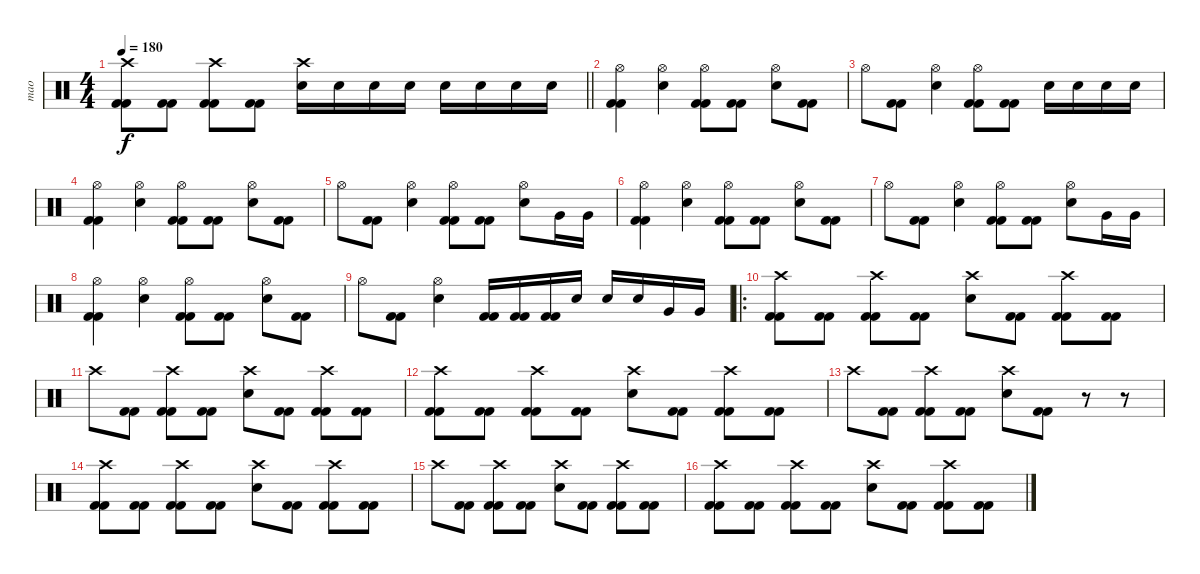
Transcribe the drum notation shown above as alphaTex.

\track ("mao" "mao") {instrument percussion}
\staff {score}
\articulation defaults
\ts (4 4)
\tempo 180
\clef neutral
\barLineRight lightlight
\ks c
("Crash high (hit)" "Kick (hit) 2" "Kick (hit) 2").8{dy f} ("Kick (hit) 2" "Kick (hit) 2").8 ("Crash high (hit)" "Kick (hit) 2" "Kick (hit) 2").8 ("Kick (hit) 2" "Kick (hit) 2").8 ("Crash high (hit)" "Electric Snare (hit)").16 "Electric Snare (hit)".16 "Electric Snare (hit)".16 "Electric Snare (hit)".16 "Electric Snare (hit)".16 "Electric Snare (hit)".16 "Electric Snare (hit)".16 "Electric Snare (hit)".16 |
("Hi-Hat (open)" "Kick (hit) 2" "Kick (hit) 2").4 ("Hi-Hat (open)" "Electric Snare (hit)").4 ("Hi-Hat (open)" "Kick (hit) 2" "Kick (hit) 2").8 ("Kick (hit) 2" "Kick (hit) 2").8 ("Hi-Hat (open)" "Electric Snare (hit)").8 ("Kick (hit) 2" "Kick (hit) 2").8 |
"Hi-Hat (open)".8 ("Kick (hit) 2" "Kick (hit) 2").8 ("Hi-Hat (open)" "Electric Snare (hit)").4 ("Hi-Hat (open)" "Kick (hit) 2" "Kick (hit) 2").8 ("Kick (hit) 2" "Kick (hit) 2").8 "Electric Snare (hit)".16 "Electric Snare (hit)".16 "Electric Snare (hit)".16 "Electric Snare (hit)".16 |
("Hi-Hat (open)" "Kick (hit) 2" "Kick (hit) 2").4 ("Hi-Hat (open)" "Electric Snare (hit)").4 ("Hi-Hat (open)" "Kick (hit) 2" "Kick (hit) 2").8 ("Kick (hit) 2" "Kick (hit) 2").8 ("Hi-Hat (open)" "Electric Snare (hit)").8 ("Kick (hit) 2" "Kick (hit) 2").8 |
"Hi-Hat (open)".8 ("Kick (hit) 2" "Kick (hit) 2").8 ("Hi-Hat (open)" "Electric Snare (hit)").4 ("Hi-Hat (open)" "Kick (hit) 2" "Kick (hit) 2").8 ("Kick (hit) 2" "Kick (hit) 2").8 ("Hi-Hat (open)" "Electric Snare (hit)").8 "Very Low Tom (hit)".16 "Very Low Tom (hit)".16 |
("Hi-Hat (open)" "Kick (hit) 2" "Kick (hit) 2").4 ("Hi-Hat (open)" "Electric Snare (hit)").4 ("Hi-Hat (open)" "Kick (hit) 2" "Kick (hit) 2").8 ("Kick (hit) 2" "Kick (hit) 2").8 ("Hi-Hat (open)" "Electric Snare (hit)").8 ("Kick (hit) 2" "Kick (hit) 2").8 |
"Hi-Hat (open)".8 ("Kick (hit) 2" "Kick (hit) 2").8 ("Hi-Hat (open)" "Electric Snare (hit)").4 ("Hi-Hat (open)" "Kick (hit) 2" "Kick (hit) 2").8 ("Kick (hit) 2" "Kick (hit) 2").8 ("Hi-Hat (open)" "Electric Snare (hit)").8 "Very Low Tom (hit)".16 "Very Low Tom (hit)".16 |
("Hi-Hat (open)" "Kick (hit) 2" "Kick (hit) 2").4 ("Hi-Hat (open)" "Electric Snare (hit)").4 ("Hi-Hat (open)" "Kick (hit) 2" "Kick (hit) 2").8 ("Kick (hit) 2" "Kick (hit) 2").8 ("Hi-Hat (open)" "Electric Snare (hit)").8 ("Kick (hit) 2" "Kick (hit) 2").8 |
"Hi-Hat (open)".8 ("Kick (hit) 2" "Kick (hit) 2").8 ("Hi-Hat (open)" "Electric Snare (hit)").4 ("Kick (hit) 2" "Kick (hit) 2").16 ("Kick (hit) 2" "Kick (hit) 2").16 ("Kick (hit) 2" "Kick (hit) 2").16 "Electric Snare (hit)".16 "Electric Snare (hit)".16 "Electric Snare (hit)".16 "Very Low Tom (hit)".16 "Very Low Tom (hit)".16 |
\ro
("Crash high (hit)" "Kick (hit) 2" "Kick (hit) 2").8 ("Kick (hit) 2" "Kick (hit) 2").8 ("Crash high (hit)" "Kick (hit) 2" "Kick (hit) 2").8 ("Kick (hit) 2" "Kick (hit) 2").8 ("Crash high (hit)" "Electric Snare (hit)").8 ("Kick (hit) 2" "Kick (hit) 2").8 ("Crash high (hit)" "Kick (hit) 2" "Kick (hit) 2").8 ("Kick (hit) 2" "Kick (hit) 2").8 |
"Crash high (hit)".8 ("Kick (hit) 2" "Kick (hit) 2").8 ("Crash high (hit)" "Kick (hit) 2" "Kick (hit) 2").8 ("Kick (hit) 2" "Kick (hit) 2").8 ("Crash high (hit)" "Electric Snare (hit)").8 ("Kick (hit) 2" "Kick (hit) 2").8 ("Crash high (hit)" "Kick (hit) 2" "Kick (hit) 2").8 ("Kick (hit) 2" "Kick (hit) 2").8 |
("Crash high (hit)" "Kick (hit) 2" "Kick (hit) 2").8 ("Kick (hit) 2" "Kick (hit) 2").8 ("Crash high (hit)" "Kick (hit) 2" "Kick (hit) 2").8 ("Kick (hit) 2" "Kick (hit) 2").8 ("Crash high (hit)" "Electric Snare (hit)").8 ("Kick (hit) 2" "Kick (hit) 2").8 ("Crash high (hit)" "Kick (hit) 2" "Kick (hit) 2").8 ("Kick (hit) 2" "Kick (hit) 2").8 |
"Crash high (hit)".8 ("Kick (hit) 2" "Kick (hit) 2").8 ("Crash high (hit)" "Kick (hit) 2" "Kick (hit) 2").8 ("Kick (hit) 2" "Kick (hit) 2").8 ("Crash high (hit)" "Electric Snare (hit)").8 ("Kick (hit) 2" "Kick (hit) 2").8 r.8 r.8 |
("Crash high (hit)" "Kick (hit) 2" "Kick (hit) 2").8 ("Kick (hit) 2" "Kick (hit) 2").8 ("Crash high (hit)" "Kick (hit) 2" "Kick (hit) 2").8 ("Kick (hit) 2" "Kick (hit) 2").8 ("Crash high (hit)" "Electric Snare (hit)").8 ("Kick (hit) 2" "Kick (hit) 2").8 ("Crash high (hit)" "Kick (hit) 2" "Kick (hit) 2").8 ("Kick (hit) 2" "Kick (hit) 2").8 |
"Crash high (hit)".8 ("Kick (hit) 2" "Kick (hit) 2").8 ("Crash high (hit)" "Kick (hit) 2" "Kick (hit) 2").8 ("Kick (hit) 2" "Kick (hit) 2").8 ("Crash high (hit)" "Electric Snare (hit)").8 ("Kick (hit) 2" "Kick (hit) 2").8 ("Crash high (hit)" "Kick (hit) 2" "Kick (hit) 2").8 ("Kick (hit) 2" "Kick (hit) 2").8 |
("Crash high (hit)" "Kick (hit) 2" "Kick (hit) 2").8 ("Kick (hit) 2" "Kick (hit) 2").8 ("Crash high (hit)" "Kick (hit) 2" "Kick (hit) 2").8 ("Kick (hit) 2" "Kick (hit) 2").8 ("Crash high (hit)" "Electric Snare (hit)").8 ("Kick (hit) 2" "Kick (hit) 2").8 ("Crash high (hit)" "Kick (hit) 2" "Kick (hit) 2").8 ("Kick (hit) 2" "Kick (hit) 2").8
